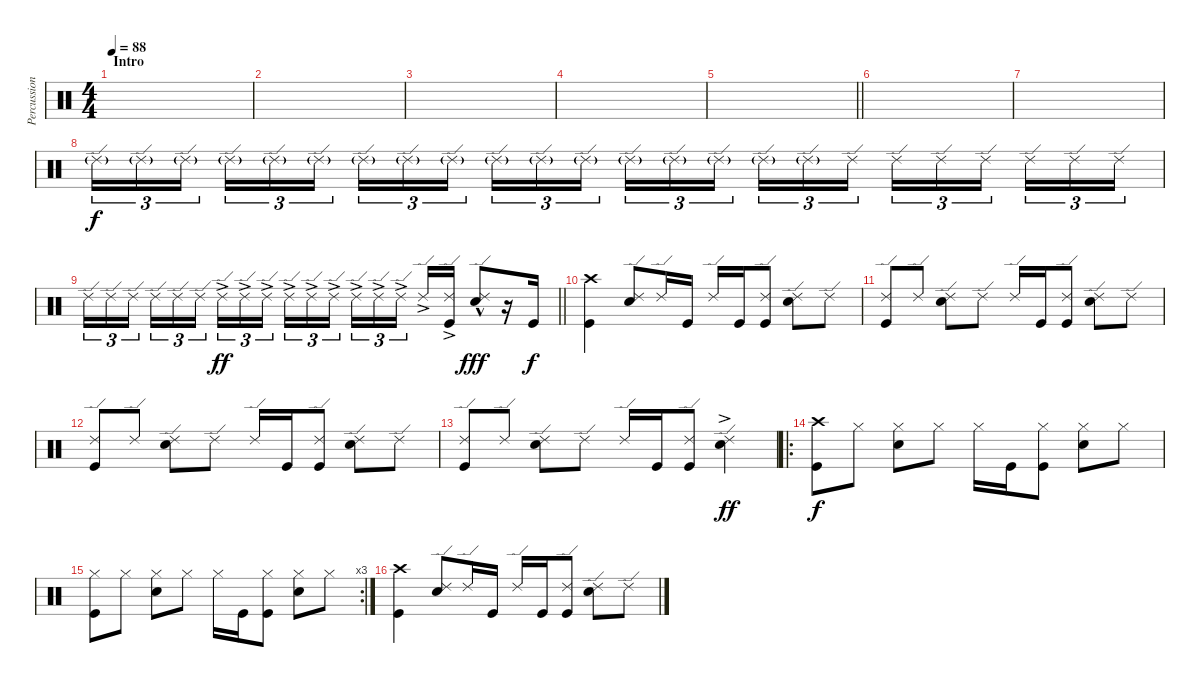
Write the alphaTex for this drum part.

\track ("Percussion" "Percussion") {instrument percussion}
\staff {score}
\articulation defaults
\ts (4 4)
\section ("" "Intro")
\tempo 88
\clef neutral
\ks c
|
|
|
|
\barLineRight lightlight
|
|
|
"Ride (edge) 2"{g}.16{tu (3 2)} "Ride (edge) 2"{g}.16{tu (3 2)} "Ride (edge) 2"{g}.16{tu (3 2) beam splitsecondary} "Ride (edge) 2"{g}.16{tu (3 2)} "Ride (edge) 2"{g}.16{tu (3 2)} "Ride (edge) 2"{g}.16{tu (3 2)} "Ride (edge) 2"{g}.16{tu (3 2)} "Ride (edge) 2"{g}.16{tu (3 2)} "Ride (edge) 2"{g}.16{tu (3 2) beam splitsecondary} "Ride (edge) 2"{g}.16{tu (3 2)} "Ride (edge) 2"{g}.16{tu (3 2)} "Ride (edge) 2"{g}.16{tu (3 2)} "Ride (edge) 2"{g}.16{tu (3 2)} "Ride (edge) 2"{g}.16{tu (3 2)} "Ride (edge) 2"{g}.16{tu (3 2) beam splitsecondary} "Ride (edge) 2"{g}.16{tu (3 2)} "Ride (edge) 2"{g}.16{tu (3 2)} "Ride (edge) 2".16{tu (3 2) dy f} "Ride (edge) 2".16{tu (3 2)} "Ride (edge) 2".16{tu (3 2)} "Ride (edge) 2".16{tu (3 2) beam splitsecondary} "Ride (edge) 2".16{tu (3 2)} "Ride (edge) 2".16{tu (3 2)} "Ride (edge) 2".16{tu (3 2)} |
\barLineRight lightlight "Ride (edge) 2".16{tu (3 2)} "Ride (edge) 2".16{tu (3 2)} "Ride (edge) 2".16{tu (3 2) beam splitsecondary} "Ride (edge) 2".16{tu (3 2)} "Ride (edge) 2".16{tu (3 2)} "Ride (edge) 2".16{tu (3 2)} "Ride (edge) 2"{ac}.16{tu (3 2) dy ff} "Ride (edge) 2"{ac}.16{tu (3 2)} "Ride (edge) 2"{ac}.16{tu (3 2) beam splitsecondary} "Ride (edge) 2"{ac}.16{tu (3 2)} "Ride (edge) 2"{ac}.16{tu (3 2)} "Ride (edge) 2"{ac}.16{tu (3 2)} "Ride (edge) 2"{ac}.16{tu (3 2)} "Ride (edge) 2"{ac}.16{tu (3 2)} "Ride (edge) 2"{ac}.16{tu (3 2) beam splitsecondary} "Ride (edge) 2"{ac}.16
("Ride (edge) 2"{ac} "Kick (hit)"{ac}).16 ("Ride (edge) 2"{hac} "Snare (hit) 2"{hac}).8{dy fff} r.16 "Kick (hit)".16{dy f} |
("Crash high (hit)" "Kick (hit)").4 ("Ride (edge) 2" "Snare (hit) 2").8 "Ride (edge) 2".16 "Kick (hit)".16 "Ride (edge) 2".16 "Kick (hit)".16 ("Ride (edge) 2" "Kick (hit)").8 ("Ride (edge) 2" "Snare (hit) 2").8 "Ride (edge) 2".8 |
("Ride (edge) 2" "Kick (hit)").8 "Ride (edge) 2".8 ("Ride (edge) 2" "Snare (hit) 2").8 "Ride (edge) 2".8 "Ride (edge) 2".16 "Kick (hit)".16 ("Ride (edge) 2" "Kick (hit)").8 ("Ride (edge) 2" "Snare (hit) 2").8 "Ride (edge) 2".8 |
("Ride (edge) 2" "Kick (hit)").8 "Ride (edge) 2".8 ("Ride (edge) 2" "Snare (hit) 2").8 "Ride (edge) 2".8 "Ride (edge) 2".16 "Kick (hit)".16 ("Ride (edge) 2" "Kick (hit)").8 ("Ride (edge) 2" "Snare (hit) 2").8 "Ride (edge) 2".8 |
("Ride (edge) 2" "Kick (hit)").8 "Ride (edge) 2".8 ("Ride (edge) 2" "Snare (hit) 2").8 "Ride (edge) 2".8 "Ride (edge) 2".16 "Kick (hit)".16 ("Ride (edge) 2" "Kick (hit)").8 ("Ride (edge) 2" "Snare (hit) 2"{ac}).4{dy ff} |
\ro
("Crash high (hit)" "Kick (hit)").8{dy f} "Hi-Hat (closed)".8 ("Hi-Hat (closed)" "Snare (hit) 2").8 "Hi-Hat (closed)".8 "Hi-Hat (closed)".16 "Kick (hit)".16 ("Hi-Hat (closed)" "Kick (hit)").8 ("Hi-Hat (closed)" "Snare (hit) 2").8 "Hi-Hat (closed)".8 |
\rc 3
("Hi-Hat (closed)" "Kick (hit)").8 "Hi-Hat (closed)".8 ("Hi-Hat (closed)" "Snare (hit) 2").8 "Hi-Hat (closed)".8 "Hi-Hat (closed)".16 "Kick (hit)".16 ("Hi-Hat (closed)" "Kick (hit)").8 ("Hi-Hat (closed)" "Snare (hit) 2").8 "Hi-Hat (closed)".8 |
("Crash high (hit)" "Kick (hit)").4 ("Ride (edge) 2" "Snare (hit) 2").8 "Ride (edge) 2".16 "Kick (hit)".16 "Ride (edge) 2".16 "Kick (hit)".16 ("Ride (edge) 2" "Kick (hit)").8 ("Ride (edge) 2" "Snare (hit) 2").8 "Ride (edge) 2".8
